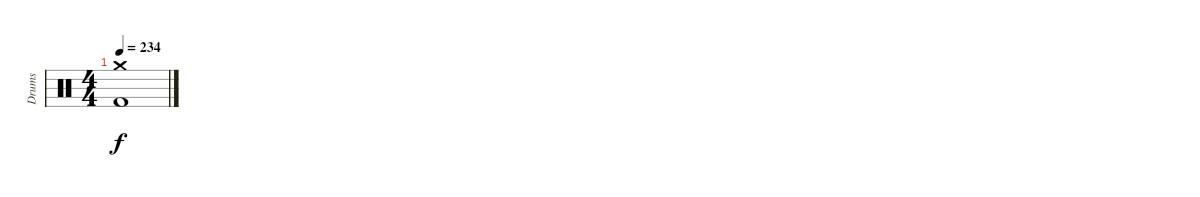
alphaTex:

\track ("Drums" "Drums") {instrument percussion}
\staff {score}
\articulation defaults
\ts (4 4)
\tempo 234
\clef neutral
\ks c
("Crash medium (hit)" "Kick (hit) 2").1{dy f}
